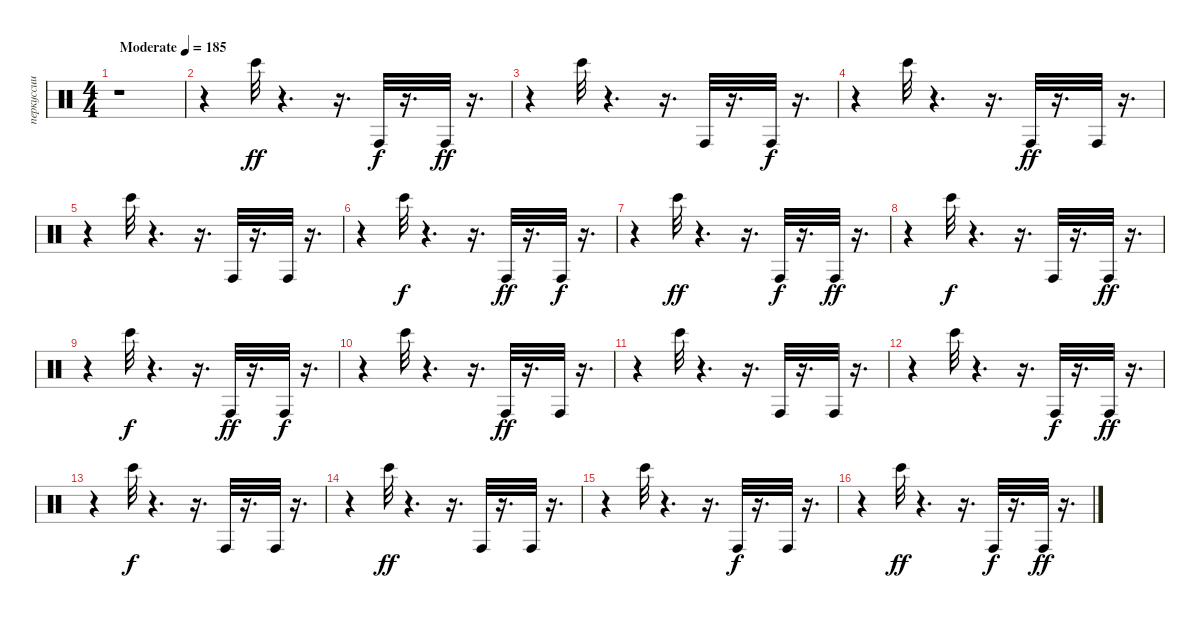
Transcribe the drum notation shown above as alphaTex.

\track ("перкуссии" "перкуссии") {instrument percussion}
\staff {score}
\articulation defaults
\ts (4 4)
\tempo (185 "Moderate")
\clef neutral
\ks c
r.1{dy ff} |
r.4 "Bongo High (hit)".32 r.4{d} r.16{d} "Conga high (hit)".32{dy f} r.16{d} "Conga high (hit)".32{dy ff} r.16{d} |
r.4 "Bongo High (hit)".32 r.4{d} r.16{d} "Conga high (hit)".32 r.16{d} "Conga high (hit)".32{dy f} r.16{d} |
r.4 "Bongo High (hit)".32 r.4{d} r.16{d} "Conga high (hit)".32{dy ff} r.16{d} "Conga high (hit)".32 r.16{d} |
r.4 "Bongo High (hit)".32 r.4{d} r.16{d} "Conga high (hit)".32 r.16{d} "Conga high (hit)".32 r.16{d} |
r.4 "Bongo High (hit)".32{dy f} r.4{d} r.16{d} "Conga high (hit)".32{dy ff} r.16{d} "Conga high (hit)".32{dy f} r.16{d} |
r.4 "Bongo High (hit)".32{dy ff} r.4{d} r.16{d} "Conga high (hit)".32{dy f} r.16{d} "Conga high (hit)".32{dy ff} r.16{d} |
r.4 "Bongo High (hit)".32{dy f} r.4{d} r.16{d} "Conga high (hit)".32 r.16{d} "Conga high (hit)".32{dy ff} r.16{d} |
r.4 "Bongo High (hit)".32{dy f} r.4{d} r.16{d} "Conga high (hit)".32{dy ff} r.16{d} "Conga high (hit)".32{dy f} r.16{d} |
r.4 "Bongo High (hit)".32 r.4{d} r.16{d} "Conga high (hit)".32{dy ff} r.16{d} "Conga high (hit)".32 r.16{d} |
r.4 "Bongo High (hit)".32 r.4{d} r.16{d} "Conga high (hit)".32 r.16{d} "Conga high (hit)".32 r.16{d} |
r.4 "Bongo High (hit)".32 r.4{d} r.16{d} "Conga high (hit)".32{dy f} r.16{d} "Conga high (hit)".32{dy ff} r.16{d} |
r.4 "Bongo High (hit)".32{dy f} r.4{d} r.16{d} "Conga high (hit)".32 r.16{d} "Conga high (hit)".32 r.16{d} |
r.4 "Bongo High (hit)".32{dy ff} r.4{d} r.16{d} "Conga high (hit)".32 r.16{d} "Conga high (hit)".32 r.16{d} |
r.4 "Bongo High (hit)".32 r.4{d} r.16{d} "Conga high (hit)".32{dy f} r.16{d} "Conga high (hit)".32 r.16{d} |
r.4 "Bongo High (hit)".32{dy ff} r.4{d} r.16{d} "Conga high (hit)".32{dy f} r.16{d} "Conga high (hit)".32{dy ff} r.16{d}
